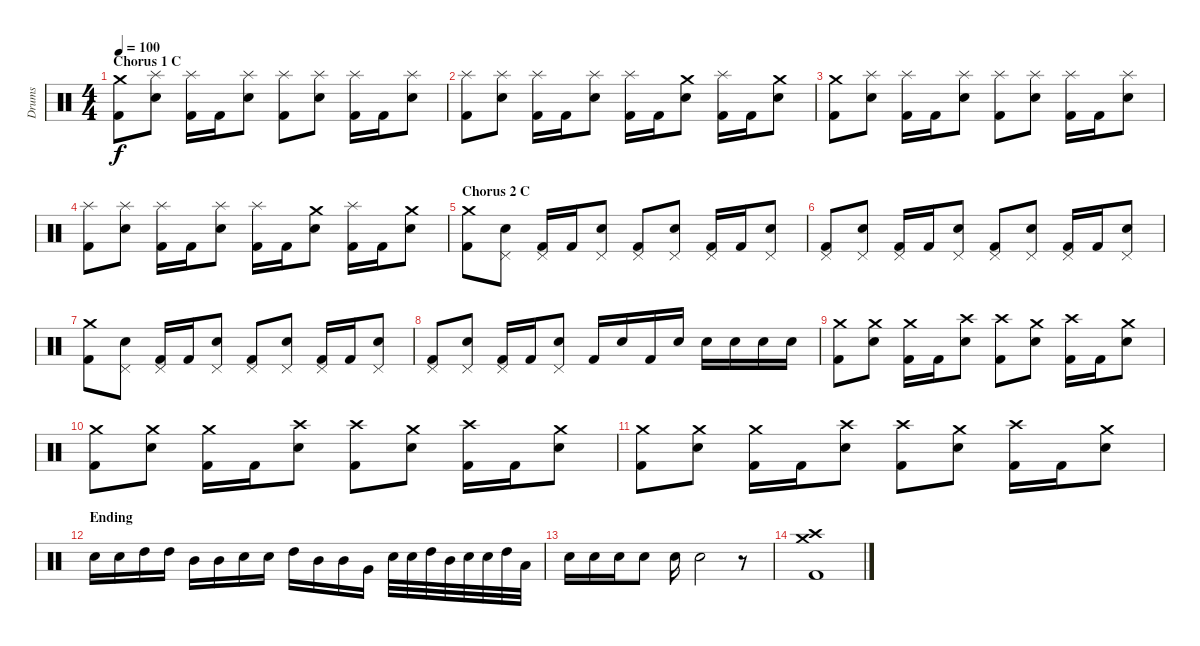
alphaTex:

\track ("Drums" "Drums") {instrument percussion}
\staff {score}
\articulation defaults
\ts (4 4)
\section ("" "Chorus 1 C")
\tempo 100
\clef neutral
\ks c
("Crash medium (hit)" "Kick (hit) 2").8{dy f} ("Splash (hit)" "Electric Snare (hit)").8 ("Splash (hit)" "Kick (hit) 2").16 "Kick (hit) 2".16 ("Splash (hit)" "Electric Snare (hit)").8 ("Splash (hit)" "Kick (hit) 2").8 ("Splash (hit)" "Electric Snare (hit)").8 ("Splash (hit)" "Kick (hit) 2").16 "Kick (hit) 2".16 ("Splash (hit)" "Electric Snare (hit)").8 |
("Splash (hit)" "Kick (hit) 2").8 ("Splash (hit)" "Electric Snare (hit)").8 ("Splash (hit)" "Kick (hit) 2").16 "Kick (hit) 2".16 ("Splash (hit)" "Electric Snare (hit)").8 ("Splash (hit)" "Kick (hit) 2").16 "Kick (hit) 2".16 ("Crash medium (hit)" "Electric Snare (hit)").8 ("Splash (hit)" "Kick (hit) 2").16 "Kick (hit) 2".16 ("Crash medium (hit)" "Electric Snare (hit)").8 |
("Crash medium (hit)" "Kick (hit) 2").8 ("Splash (hit)" "Electric Snare (hit)").8 ("Splash (hit)" "Kick (hit) 2").16 "Kick (hit) 2".16 ("Splash (hit)" "Electric Snare (hit)").8 ("Splash (hit)" "Kick (hit) 2").8 ("Splash (hit)" "Electric Snare (hit)").8 ("Splash (hit)" "Kick (hit) 2").16 "Kick (hit) 2".16 ("Splash (hit)" "Electric Snare (hit)").8 |
("Splash (hit)" "Kick (hit) 2").8 ("Splash (hit)" "Electric Snare (hit)").8 ("Splash (hit)" "Kick (hit) 2").16 "Kick (hit) 2".16 ("Splash (hit)" "Electric Snare (hit)").8 ("Splash (hit)" "Kick (hit) 2").16 "Kick (hit) 2".16 ("Crash medium (hit)" "Electric Snare (hit)").8 ("Splash (hit)" "Kick (hit) 2").16 "Kick (hit) 2".16 ("Crash medium (hit)" "Electric Snare (hit)").8 |
\section ("" "Chorus 2 C")
("Crash medium (hit)" "Kick (hit) 2").8 ("Pedal Hi-Hat (hit)" "Electric Snare (hit)").8 ("Pedal Hi-Hat (hit)" "Kick (hit) 2").16 "Kick (hit) 2".16 ("Pedal Hi-Hat (hit)" "Electric Snare (hit)").8 ("Pedal Hi-Hat (hit)" "Kick (hit) 2").8 ("Pedal Hi-Hat (hit)" "Electric Snare (hit)").8 ("Pedal Hi-Hat (hit)" "Kick (hit) 2").16 "Kick (hit) 2".16 ("Pedal Hi-Hat (hit)" "Electric Snare (hit)").8 |
("Pedal Hi-Hat (hit)" "Kick (hit) 2").8 ("Pedal Hi-Hat (hit)" "Electric Snare (hit)").8 ("Pedal Hi-Hat (hit)" "Kick (hit) 2").16 "Kick (hit) 2".16 ("Pedal Hi-Hat (hit)" "Electric Snare (hit)").8 ("Pedal Hi-Hat (hit)" "Kick (hit) 2").8 ("Pedal Hi-Hat (hit)" "Electric Snare (hit)").8 ("Pedal Hi-Hat (hit)" "Kick (hit) 2").16 "Kick (hit) 2".16 ("Pedal Hi-Hat (hit)" "Electric Snare (hit)").8 |
("Crash medium (hit)" "Kick (hit) 2").8 ("Pedal Hi-Hat (hit)" "Electric Snare (hit)").8 ("Pedal Hi-Hat (hit)" "Kick (hit) 2").16 "Kick (hit) 2".16 ("Pedal Hi-Hat (hit)" "Electric Snare (hit)").8 ("Pedal Hi-Hat (hit)" "Kick (hit) 2").8 ("Pedal Hi-Hat (hit)" "Electric Snare (hit)").8 ("Pedal Hi-Hat (hit)" "Kick (hit) 2").16 "Kick (hit) 2".16 ("Pedal Hi-Hat (hit)" "Electric Snare (hit)").8 |
("Pedal Hi-Hat (hit)" "Kick (hit) 2").8 ("Pedal Hi-Hat (hit)" "Electric Snare (hit)").8 ("Pedal Hi-Hat (hit)" "Kick (hit) 2").16 "Kick (hit) 2".16 ("Pedal Hi-Hat (hit)" "Electric Snare (hit)").8 "Kick (hit) 2".16 "Electric Snare (hit)".16 "Kick (hit) 2".16 "Electric Snare (hit)".16 "Electric Snare (hit)".16 "Electric Snare (hit)".16 "Electric Snare (hit)".16 "Electric Snare (hit)".16 |
("Crash medium (hit)" "Kick (hit) 2").8 ("Crash medium (hit)" "Electric Snare (hit)").8 ("Crash medium (hit)" "Kick (hit) 2").16 "Kick (hit) 2".16 ("Crash high (hit)" "Electric Snare (hit)").8 ("Crash high (hit)" "Kick (hit) 2").8 ("Crash medium (hit)" "Electric Snare (hit)").8 ("Crash high (hit)" "Kick (hit) 2").16 "Kick (hit) 2".16 ("Crash medium (hit)" "Electric Snare (hit)").8 |
("Crash medium (hit)" "Kick (hit) 2").8 ("Crash medium (hit)" "Electric Snare (hit)").8 ("Crash medium (hit)" "Kick (hit) 2").16 "Kick (hit) 2".16 ("Crash high (hit)" "Electric Snare (hit)").8 ("Crash high (hit)" "Kick (hit) 2").8 ("Crash medium (hit)" "Electric Snare (hit)").8 ("Crash high (hit)" "Kick (hit) 2").16 "Kick (hit) 2".16 ("Crash medium (hit)" "Electric Snare (hit)").8 |
("Crash medium (hit)" "Kick (hit) 2").8 ("Crash medium (hit)" "Electric Snare (hit)").8 ("Crash medium (hit)" "Kick (hit) 2").16 "Kick (hit) 2".16 ("Crash high (hit)" "Electric Snare (hit)").8 ("Crash high (hit)" "Kick (hit) 2").8 ("Crash medium (hit)" "Electric Snare (hit)").8 ("Crash high (hit)" "Kick (hit) 2").16 "Kick (hit) 2".16 ("Crash medium (hit)" "Electric Snare (hit)").8 |
\section ("" "Ending")
"Electric Snare (hit)".16 "Electric Snare (hit)".16 "High Tom (hit)".16 "High Tom (hit)".16 "Mid Tom (hit)".16 "Mid Tom (hit)".16 "Electric Snare (hit)".16 "Electric Snare (hit)".16 "High Tom (hit)".16 "Mid Tom (hit)".16 "Mid Tom (hit)".16 "Very Low Tom (hit)".16 "Electric Snare (hit)".32 "Electric Snare (hit)".32 "High Tom (hit)".32 "Mid Tom (hit)".32 "Electric Snare (hit)".32 "Electric Snare (hit)".32 "High Tom (hit)".32 "Low Tom (hit)".32 |
"Electric Snare (hit)".16 "Electric Snare (hit)".16 "Electric Snare (hit)".16 "Electric Snare (hit)".8 "Electric Snare (hit)".16 "Electric Snare (hit)".2 r.8 |
("Crash medium (hit)" "Crash high (hit)" "Kick (hit) 2").1
